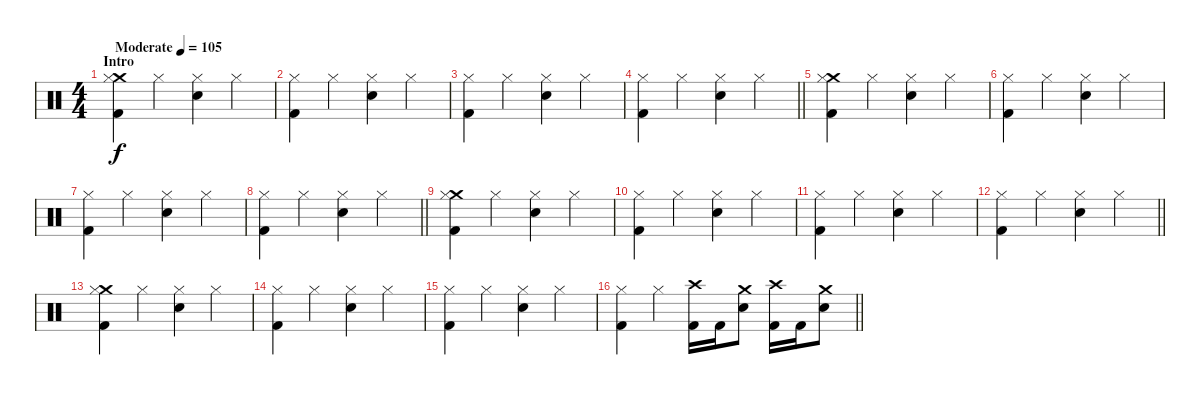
\track "" {instrument percussion}
\staff {score}
\articulation defaults
\ts (4 4)
\section ("" "Intro ")
\tempo (105 "Moderate")
\clef neutral
\ks c
("Crash medium (hit)" "Hi-Hat (closed)" "Kick (hit) 2").4{dy f} "Hi-Hat (closed)".4 ("Hi-Hat (closed)" "Snare (hit) 2").4 "Hi-Hat (closed)".4 |
("Hi-Hat (closed)" "Kick (hit) 2").4 "Hi-Hat (closed)".4 ("Hi-Hat (closed)" "Snare (hit) 2").4 "Hi-Hat (closed)".4 |
("Hi-Hat (closed)" "Kick (hit) 2").4 "Hi-Hat (closed)".4 ("Hi-Hat (closed)" "Snare (hit) 2").4 "Hi-Hat (closed)".4 |
\barLineRight lightlight
("Hi-Hat (closed)" "Kick (hit) 2").4 "Hi-Hat (closed)".4 ("Hi-Hat (closed)" "Snare (hit) 2").4 "Hi-Hat (closed)".4 |
("Crash medium (hit)" "Hi-Hat (closed)" "Kick (hit) 2").4 "Hi-Hat (closed)".4 ("Hi-Hat (closed)" "Snare (hit) 2").4 "Hi-Hat (closed)".4 |
("Hi-Hat (closed)" "Kick (hit) 2").4 "Hi-Hat (closed)".4 ("Hi-Hat (closed)" "Snare (hit) 2").4 "Hi-Hat (closed)".4 |
("Hi-Hat (closed)" "Kick (hit) 2").4 "Hi-Hat (closed)".4 ("Hi-Hat (closed)" "Snare (hit) 2").4 "Hi-Hat (closed)".4 |
\barLineRight lightlight
("Hi-Hat (closed)" "Kick (hit) 2").4 "Hi-Hat (closed)".4 ("Hi-Hat (closed)" "Snare (hit) 2").4 "Hi-Hat (closed)".4 |
("Crash medium (hit)" "Hi-Hat (closed)" "Kick (hit) 2").4 "Hi-Hat (closed)".4 ("Hi-Hat (closed)" "Snare (hit) 2").4 "Hi-Hat (closed)".4 |
("Hi-Hat (closed)" "Kick (hit) 2").4 "Hi-Hat (closed)".4 ("Hi-Hat (closed)" "Snare (hit) 2").4 "Hi-Hat (closed)".4 |
("Hi-Hat (closed)" "Kick (hit) 2").4 "Hi-Hat (closed)".4 ("Hi-Hat (closed)" "Snare (hit) 2").4 "Hi-Hat (closed)".4 |
\barLineRight lightlight
("Hi-Hat (closed)" "Kick (hit) 2").4 "Hi-Hat (closed)".4 ("Hi-Hat (closed)" "Snare (hit) 2").4 "Hi-Hat (closed)".4 |
("Crash medium (hit)" "Hi-Hat (closed)" "Kick (hit) 2").4 "Hi-Hat (closed)".4 ("Hi-Hat (closed)" "Snare (hit) 2").4 "Hi-Hat (closed)".4 |
("Hi-Hat (closed)" "Kick (hit) 2").4 "Hi-Hat (closed)".4 ("Hi-Hat (closed)" "Snare (hit) 2").4 "Hi-Hat (closed)".4 |
("Hi-Hat (closed)" "Kick (hit) 2").4 "Hi-Hat (closed)".4 ("Hi-Hat (closed)" "Snare (hit) 2").4 "Hi-Hat (closed)".4 |
\barLineRight lightlight
("Hi-Hat (closed)" "Kick (hit) 2").4 "Hi-Hat (closed)".4 ("Crash high (hit)" "Kick (hit) 2").16 "Kick (hit) 2".16 ("Crash medium (hit)" "Snare (hit) 2").8 ("Crash high (hit)" "Kick (hit) 2").16 "Kick (hit) 2".16 ("Crash medium (hit)" "Snare (hit) 2").8
